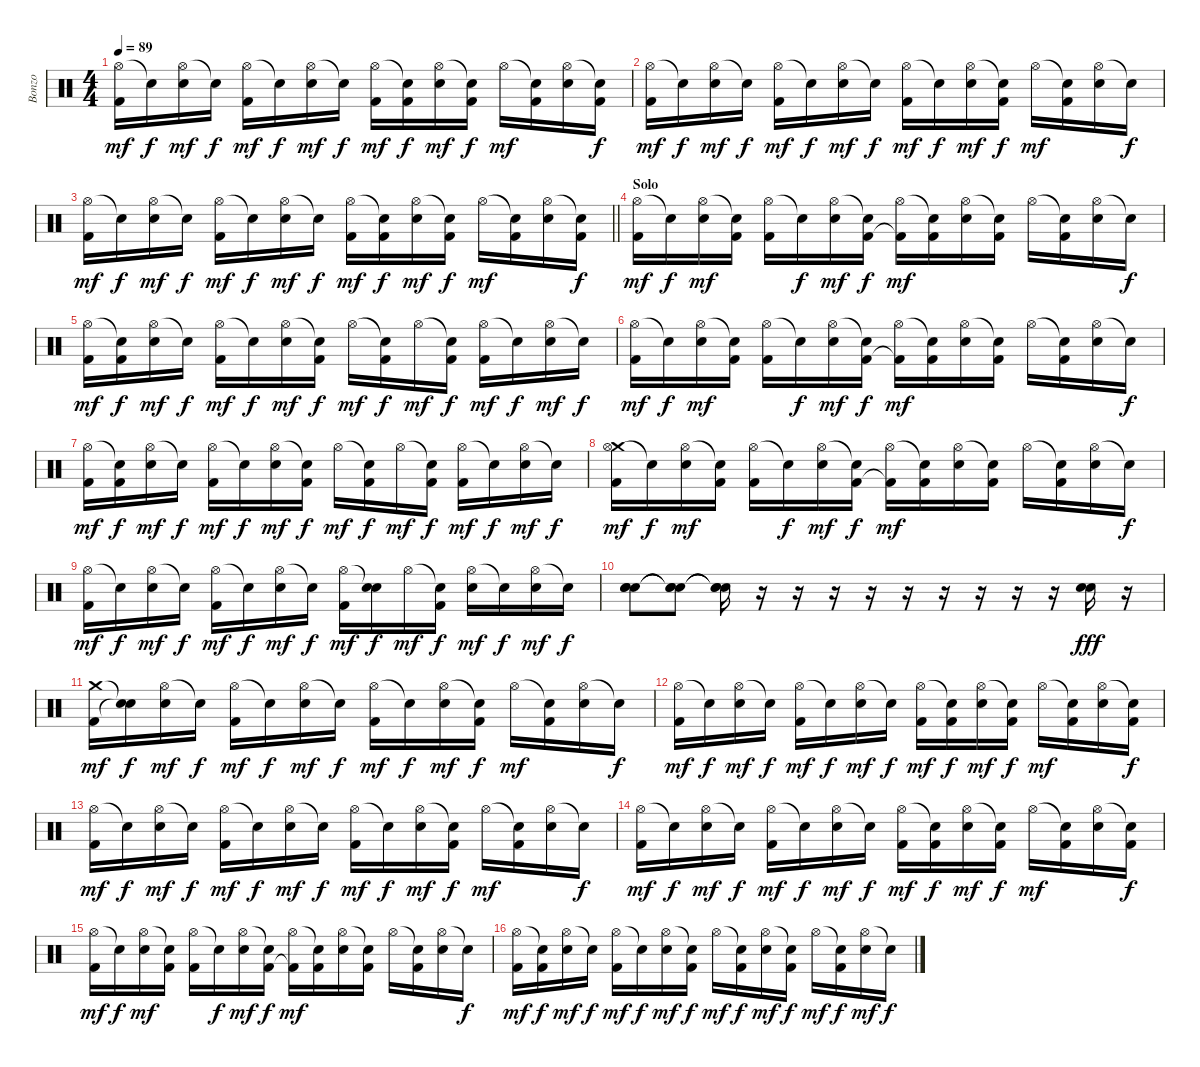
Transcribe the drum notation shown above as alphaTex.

\track ("Bonzo" "Bonzo") {instrument percussion}
\staff {score}
\articulation defaults
\ts (4 4)
\tempo 89
\clef neutral
\ks c
("Hi-Hat (open)" "Kick (hit) 2").16{dy mf} "Snare (hit)"{t}.16{dy f} ("Hi-Hat (open)" "Snare (hit) 2").16{dy mf} "Snare (hit)"{t}.16{dy f} ("Hi-Hat (open)" "Kick (hit) 2").16{dy mf} "Snare (hit)"{t}.16{dy f} ("Hi-Hat (open)" "Snare (hit) 2").16{dy mf} "Snare (hit)"{t}.16{dy f} ("Hi-Hat (open)" "Kick (hit) 2").16{dy mf} ("Snare (hit)"{t} "Kick (hit) 2").16{dy f} ("Hi-Hat (open)" "Snare (hit) 2").16{dy mf} ("Snare (hit)"{t} "Kick (hit) 2").16{dy f} "Hi-Hat (open)".16{dy mf} ("Snare (hit)"{t} "Kick (hit) 2").16 ("Hi-Hat (open)" "Snare (hit) 2").16 ("Snare (hit)"{t} "Kick (hit) 2").16{dy f} |
("Hi-Hat (open)" "Kick (hit) 2").16{dy mf} "Snare (hit)"{t}.16{dy f} ("Hi-Hat (open)" "Snare (hit) 2").16{dy mf} "Snare (hit)"{t}.16{dy f} ("Hi-Hat (open)" "Kick (hit) 2").16{dy mf} "Snare (hit)"{t}.16{dy f} ("Hi-Hat (open)" "Snare (hit) 2").16{dy mf} "Snare (hit)"{t}.16{dy f} ("Hi-Hat (open)" "Kick (hit) 2").16{dy mf} "Snare (hit)"{t}.16{dy f} ("Hi-Hat (open)" "Snare (hit) 2").16{dy mf} ("Snare (hit)"{t} "Kick (hit) 2").16{dy f} "Hi-Hat (open)".16{dy mf} ("Snare (hit)"{t} "Kick (hit) 2").16 ("Hi-Hat (open)" "Snare (hit) 2").16 "Snare (hit)"{t}.16{dy f} |
\barLineRight lightlight
("Hi-Hat (open)" "Kick (hit) 2").16{dy mf} "Snare (hit)"{t}.16{dy f} ("Hi-Hat (open)" "Snare (hit) 2").16{dy mf} "Snare (hit)"{t}.16{dy f} ("Hi-Hat (open)" "Kick (hit) 2").16{dy mf} "Snare (hit)"{t}.16{dy f} ("Hi-Hat (open)" "Snare (hit) 2").16{dy mf} "Snare (hit)"{t}.16{dy f} ("Hi-Hat (open)" "Kick (hit) 2").16{dy mf} ("Snare (hit)"{t} "Kick (hit) 2").16{dy f} ("Hi-Hat (open)" "Snare (hit) 2").16{dy mf} ("Snare (hit)"{t} "Kick (hit) 2").16{dy f} "Hi-Hat (open)".16{dy mf} ("Snare (hit)"{t} "Kick (hit) 2").16 ("Hi-Hat (open)" "Snare (hit) 2").16 ("Snare (hit)"{t} "Kick (hit) 2").16{dy f} |
\section ("" "Solo")
("Hi-Hat (open)" "Kick (hit) 2").16{dy mf} "Snare (hit)"{t}.16{dy f} ("Hi-Hat (open)" "Snare (hit) 2").16{dy mf} ("Snare (hit)"{t} "Kick (hit) 2").16 ("Hi-Hat (open)" "Kick (hit) 2").16 "Snare (hit)"{t}.16{dy f} ("Hi-Hat (open)" "Snare (hit) 2").16{dy mf} ("Snare (hit)"{t} "Kick (hit) 2").16{dy f} ("Hi-Hat (open)" "Kick (hit) 2"{t}).16{dy mf} ("Snare (hit)"{t} "Kick (hit) 2").16 ("Hi-Hat (open)" "Snare (hit) 2").16 ("Snare (hit)"{t} "Kick (hit) 2").16 "Hi-Hat (open)".16 ("Snare (hit)"{t} "Kick (hit) 2").16 ("Hi-Hat (open)" "Snare (hit) 2").16 "Snare (hit)"{t}.16{dy f} |
("Hi-Hat (open)" "Kick (hit) 2").16{dy mf} ("Snare (hit)"{t} "Kick (hit) 2").16{dy f} ("Hi-Hat (open)" "Snare (hit) 2").16{dy mf} "Snare (hit)"{t}.16{dy f} ("Hi-Hat (open)" "Kick (hit) 2").16{dy mf} "Snare (hit)"{t}.16{dy f} ("Hi-Hat (open)" "Snare (hit) 2").16{dy mf} ("Snare (hit)"{t} "Kick (hit) 2").16{dy f} "Hi-Hat (open)".16{dy mf} ("Snare (hit)"{t} "Kick (hit) 2").16{dy f} "Hi-Hat (open)".16{dy mf} ("Snare (hit)"{t} "Kick (hit) 2").16{dy f} ("Hi-Hat (open)" "Kick (hit) 2").16{dy mf} "Snare (hit)"{t}.16{dy f} ("Hi-Hat (open)" "Snare (hit) 2").16{dy mf} "Snare (hit)"{t}.16{dy f} |
("Hi-Hat (open)" "Kick (hit) 2").16{dy mf} "Snare (hit)"{t}.16{dy f} ("Hi-Hat (open)" "Snare (hit) 2").16{dy mf} ("Snare (hit)"{t} "Kick (hit) 2").16 ("Hi-Hat (open)" "Kick (hit) 2").16 "Snare (hit)"{t}.16{dy f} ("Hi-Hat (open)" "Snare (hit) 2").16{dy mf} ("Snare (hit)"{t} "Kick (hit) 2").16{dy f} ("Hi-Hat (open)" "Kick (hit) 2"{t}).16{dy mf} ("Snare (hit)"{t} "Kick (hit) 2").16 ("Hi-Hat (open)" "Snare (hit) 2").16 ("Snare (hit)"{t} "Kick (hit) 2").16 "Hi-Hat (open)".16 ("Snare (hit)"{t} "Kick (hit) 2").16 ("Hi-Hat (open)" "Snare (hit) 2").16 "Snare (hit)"{t}.16{dy f} |
("Hi-Hat (open)" "Kick (hit) 2").16{dy mf} ("Snare (hit)"{t} "Kick (hit) 2").16{dy f} ("Hi-Hat (open)" "Snare (hit) 2").16{dy mf} "Snare (hit)"{t}.16{dy f} ("Hi-Hat (open)" "Kick (hit) 2").16{dy mf} "Snare (hit)"{t}.16{dy f} ("Hi-Hat (open)" "Snare (hit) 2").16{dy mf} ("Snare (hit)"{t} "Kick (hit) 2").16{dy f} "Hi-Hat (open)".16{dy mf} ("Snare (hit)"{t} "Kick (hit) 2").16{dy f} "Hi-Hat (open)".16{dy mf} ("Snare (hit)"{t} "Kick (hit) 2").16{dy f} ("Hi-Hat (open)" "Kick (hit) 2").16{dy mf} "Snare (hit)"{t}.16{dy f} ("Hi-Hat (open)" "Snare (hit) 2").16{dy mf} "Snare (hit)"{t}.16{dy f} |
("Crash medium (hit)" "Hi-Hat (open)" "Kick (hit) 2").16{dy mf} "Snare (hit)"{t}.16{dy f} ("Hi-Hat (open)" "Snare (hit) 2").16{dy mf} ("Snare (hit)"{t} "Kick (hit) 2").16 ("Hi-Hat (open)" "Kick (hit) 2").16 "Snare (hit)"{t}.16{dy f} ("Hi-Hat (open)" "Snare (hit) 2").16{dy mf} ("Snare (hit)"{t} "Kick (hit) 2").16{dy f} ("Hi-Hat (open)" "Kick (hit) 2"{t}).16{dy mf} ("Snare (hit)"{t} "Kick (hit) 2").16 ("Hi-Hat (open)" "Snare (hit) 2").16 ("Snare (hit)"{t} "Kick (hit) 2").16 "Hi-Hat (open)".16 ("Snare (hit)"{t} "Kick (hit) 2").16 ("Hi-Hat (open)" "Snare (hit) 2").16 "Snare (hit)"{t}.16{dy f} |
("Hi-Hat (open)" "Kick (hit) 2").16{dy mf} "Snare (hit)"{t}.16{dy f} ("Hi-Hat (open)" "Snare (hit) 2").16{dy mf} "Snare (hit)"{t}.16{dy f} ("Hi-Hat (open)" "Kick (hit) 2").16{dy mf} "Snare (hit)"{t}.16{dy f} ("Hi-Hat (open)" "Snare (hit) 2").16{dy mf} "Snare (hit)"{t}.16{dy f} ("Hi-Hat (open)" "Kick (hit) 2").16{dy mf} ("Snare (hit)"{t} "Snare (hit) 2").16{dy f} "Hi-Hat (open)".16{dy mf} ("Snare (hit)"{t} "Kick (hit) 2").16{dy f} ("Hi-Hat (open)" "Snare (hit) 2").16{dy mf} "Snare (hit)"{t}.16{dy f} ("Hi-Hat (open)" "Snare (hit) 2").16{dy mf} "Snare (hit)"{t}.16{dy f} |
("Snare (hit) 2" "Snare (hit) 2" "Snare (hit) 2").8 ("Snare (hit)"{t} "Snare (hit)"{t} "Snare (hit)"{t}).8 ("Snare (hit)"{t} "Snare (hit)"{t} "Snare (hit)"{t}).16 r.16 r.16 r.16 r.16 r.16 r.16 r.16 r.16 r.16 ("Snare (hit) 2" "Snare (hit) 2").16{dy fff} r.16 |
("Crash medium (hit)" "Kick (hit) 2").16{dy mf} ("Snare (hit)"{t} "Snare (hit)"{t}).16{dy f} ("Hi-Hat (open)" "Snare (hit) 2").16{dy mf} "Snare (hit)"{t}.16{dy f} ("Hi-Hat (open)" "Kick (hit) 2").16{dy mf} "Snare (hit)"{t}.16{dy f} ("Hi-Hat (open)" "Snare (hit) 2").16{dy mf} "Snare (hit)"{t}.16{dy f} ("Hi-Hat (open)" "Kick (hit) 2").16{dy mf} "Snare (hit)"{t}.16{dy f} ("Hi-Hat (open)" "Snare (hit) 2").16{dy mf} ("Snare (hit)"{t} "Kick (hit) 2").16{dy f} "Hi-Hat (open)".16{dy mf} ("Snare (hit)"{t} "Kick (hit) 2").16 ("Hi-Hat (open)" "Snare (hit) 2").16 "Snare (hit)"{t}.16{dy f} |
("Hi-Hat (open)" "Kick (hit) 2").16{dy mf} "Snare (hit)"{t}.16{dy f} ("Hi-Hat (open)" "Snare (hit) 2").16{dy mf} "Snare (hit)"{t}.16{dy f} ("Hi-Hat (open)" "Kick (hit) 2").16{dy mf} "Snare (hit)"{t}.16{dy f} ("Hi-Hat (open)" "Snare (hit) 2").16{dy mf} "Snare (hit)"{t}.16{dy f} ("Hi-Hat (open)" "Kick (hit) 2").16{dy mf} ("Snare (hit)"{t} "Kick (hit) 2").16{dy f} ("Hi-Hat (open)" "Snare (hit) 2").16{dy mf} ("Snare (hit)"{t} "Kick (hit) 2").16{dy f} "Hi-Hat (open)".16{dy mf} ("Snare (hit)"{t} "Kick (hit) 2").16 ("Hi-Hat (open)" "Snare (hit) 2").16 ("Snare (hit)"{t} "Kick (hit) 2").16{dy f} |
("Hi-Hat (open)" "Kick (hit) 2").16{dy mf} "Snare (hit)"{t}.16{dy f} ("Hi-Hat (open)" "Snare (hit) 2").16{dy mf} "Snare (hit)"{t}.16{dy f} ("Hi-Hat (open)" "Kick (hit) 2").16{dy mf} "Snare (hit)"{t}.16{dy f} ("Hi-Hat (open)" "Snare (hit) 2").16{dy mf} "Snare (hit)"{t}.16{dy f} ("Hi-Hat (open)" "Kick (hit) 2").16{dy mf} "Snare (hit)"{t}.16{dy f} ("Hi-Hat (open)" "Snare (hit) 2").16{dy mf} ("Snare (hit)"{t} "Kick (hit) 2").16{dy f} "Hi-Hat (open)".16{dy mf} ("Snare (hit)"{t} "Kick (hit) 2").16 ("Hi-Hat (open)" "Snare (hit) 2").16 "Snare (hit)"{t}.16{dy f} |
("Hi-Hat (open)" "Kick (hit) 2").16{dy mf} "Snare (hit)"{t}.16{dy f} ("Hi-Hat (open)" "Snare (hit) 2").16{dy mf} "Snare (hit)"{t}.16{dy f} ("Hi-Hat (open)" "Kick (hit) 2").16{dy mf} "Snare (hit)"{t}.16{dy f} ("Hi-Hat (open)" "Snare (hit) 2").16{dy mf} "Snare (hit)"{t}.16{dy f} ("Hi-Hat (open)" "Kick (hit) 2").16{dy mf} ("Snare (hit)"{t} "Kick (hit) 2").16{dy f} ("Hi-Hat (open)" "Snare (hit) 2").16{dy mf} ("Snare (hit)"{t} "Kick (hit) 2").16{dy f} "Hi-Hat (open)".16{dy mf} ("Snare (hit)"{t} "Kick (hit) 2").16 ("Hi-Hat (open)" "Snare (hit) 2").16 ("Snare (hit)"{t} "Kick (hit) 2").16{dy f} |
("Hi-Hat (open)" "Kick (hit) 2").16{dy mf} "Snare (hit)"{t}.16{dy f} ("Hi-Hat (open)" "Snare (hit) 2").16{dy mf} ("Snare (hit)"{t} "Kick (hit) 2").16 ("Hi-Hat (open)" "Kick (hit) 2").16 "Snare (hit)"{t}.16{dy f} ("Hi-Hat (open)" "Snare (hit) 2").16{dy mf} ("Snare (hit)"{t} "Kick (hit) 2").16{dy f} ("Hi-Hat (open)" "Kick (hit) 2"{t}).16{dy mf} ("Snare (hit)"{t} "Kick (hit) 2").16 ("Hi-Hat (open)" "Snare (hit) 2").16 ("Snare (hit)"{t} "Kick (hit) 2").16 "Hi-Hat (open)".16 ("Snare (hit)"{t} "Kick (hit) 2").16 ("Hi-Hat (open)" "Snare (hit) 2").16 "Snare (hit)"{t}.16{dy f} |
("Hi-Hat (open)" "Kick (hit) 2").16{dy mf} ("Snare (hit)"{t} "Kick (hit) 2").16{dy f} ("Hi-Hat (open)" "Snare (hit) 2").16{dy mf} "Snare (hit)"{t}.16{dy f} ("Hi-Hat (open)" "Kick (hit) 2").16{dy mf} "Snare (hit)"{t}.16{dy f} ("Hi-Hat (open)" "Snare (hit) 2").16{dy mf} ("Snare (hit)"{t} "Kick (hit) 2").16{dy f} "Hi-Hat (open)".16{dy mf} ("Snare (hit)"{t} "Kick (hit) 2").16{dy f} ("Hi-Hat (open)" "Snare (hit) 2").16{dy mf} ("Snare (hit)"{t} "Kick (hit) 2").16{dy f} "Hi-Hat (open)".16{dy mf} ("Snare (hit)"{t} "Kick (hit) 2").16{dy f} ("Hi-Hat (open)" "Snare (hit) 2").16{dy mf} "Snare (hit)"{t}.16{dy f}
